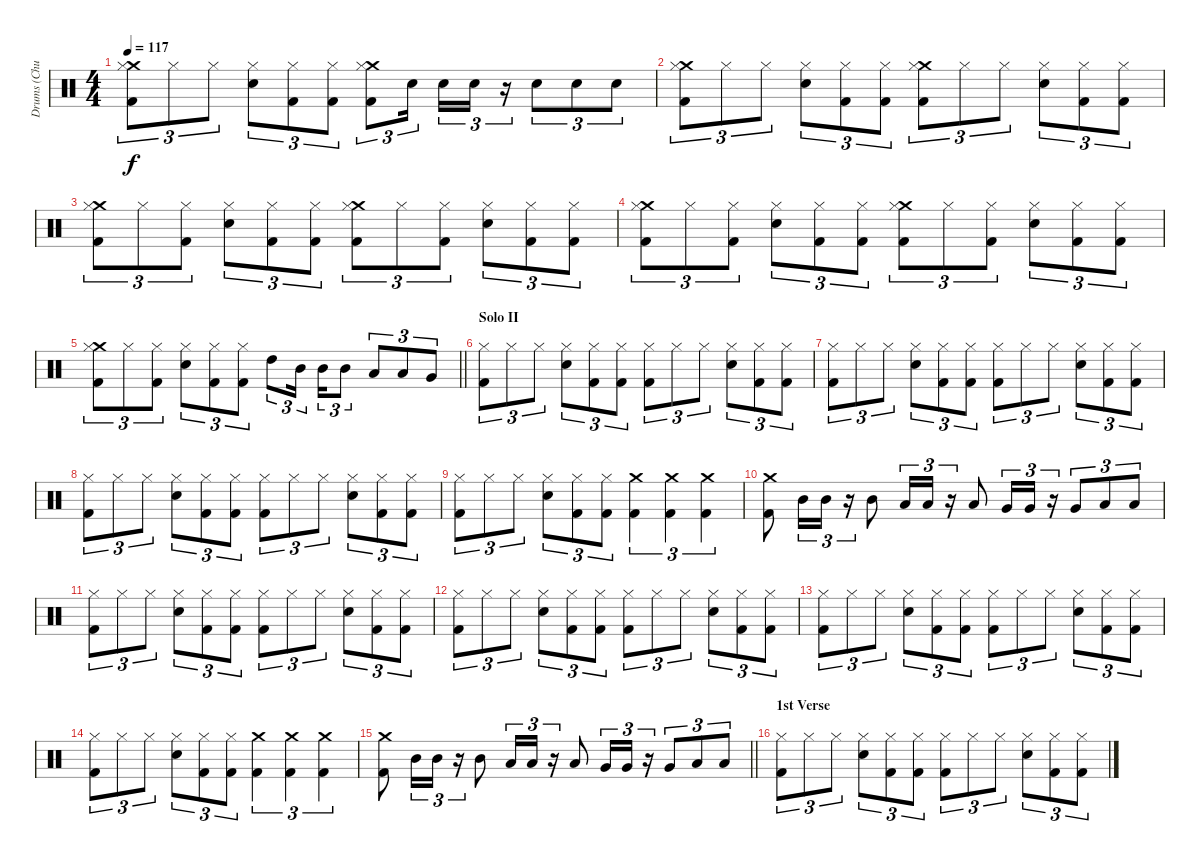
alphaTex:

\track ("Drums (Chuck Behler)" "Drums (Chu") {instrument percussion}
\staff {score}
\articulation defaults
\ts (4 4)
\tempo 117
\clef neutral
\ks c
("Crash medium (hit)" "Hi-Hat (closed)" "Kick (hit) 2").8{tu (3 2) dy f} "Hi-Hat (closed)".8{tu (3 2)} "Hi-Hat (closed)".8{tu (3 2)} ("Hi-Hat (closed)" "Snare (hit) 2").8{tu (3 2)} ("Hi-Hat (closed)" "Kick (hit) 2").8{tu (3 2)} ("Hi-Hat (closed)" "Kick (hit) 2").8{tu (3 2)} ("Crash medium (hit)" "Hi-Hat (closed)" "Kick (hit) 2").8{tu (3 2)} "Snare (hit) 2".16{tu (3 2) beam splitsecondary} "Snare (hit) 2".16{tu (3 2)} "Snare (hit) 2".16{tu (3 2)} r.16{tu (3 2)} "Snare (hit) 2".8{tu (3 2)} "Snare (hit) 2".8{tu (3 2)} "Snare (hit) 2".8{tu (3 2)} |
("Crash medium (hit)" "Hi-Hat (closed)" "Kick (hit) 2").8{tu (3 2)} "Hi-Hat (closed)".8{tu (3 2)} "Hi-Hat (closed)".8{tu (3 2)} ("Hi-Hat (closed)" "Snare (hit) 2").8{tu (3 2)} ("Hi-Hat (closed)" "Kick (hit) 2").8{tu (3 2)} ("Hi-Hat (closed)" "Kick (hit) 2").8{tu (3 2)} ("Crash medium (hit)" "Hi-Hat (closed)" "Kick (hit) 2").8{tu (3 2)} "Hi-Hat (closed)".8{tu (3 2)} "Hi-Hat (closed)".8{tu (3 2)} ("Hi-Hat (closed)" "Snare (hit) 2").8{tu (3 2)} ("Hi-Hat (closed)" "Kick (hit) 2").8{tu (3 2)} ("Hi-Hat (closed)" "Kick (hit) 2").8{tu (3 2)} |
("Crash medium (hit)" "Hi-Hat (closed)" "Kick (hit) 2").8{tu (3 2)} "Hi-Hat (closed)".8{tu (3 2)} ("Hi-Hat (closed)" "Kick (hit) 2").8{tu (3 2)} ("Hi-Hat (closed)" "Snare (hit) 2").8{tu (3 2)} ("Hi-Hat (closed)" "Kick (hit) 2").8{tu (3 2)} ("Hi-Hat (closed)" "Kick (hit) 2").8{tu (3 2)} ("Crash medium (hit)" "Hi-Hat (closed)" "Kick (hit) 2").8{tu (3 2)} "Hi-Hat (closed)".8{tu (3 2)} ("Hi-Hat (closed)" "Kick (hit) 2").8{tu (3 2)} ("Hi-Hat (closed)" "Snare (hit) 2").8{tu (3 2)} ("Hi-Hat (closed)" "Kick (hit) 2").8{tu (3 2)} ("Hi-Hat (closed)" "Kick (hit) 2").8{tu (3 2)} |
("Crash medium (hit)" "Hi-Hat (closed)" "Kick (hit) 2").8{tu (3 2)} "Hi-Hat (closed)".8{tu (3 2)} ("Hi-Hat (closed)" "Kick (hit) 2").8{tu (3 2)} ("Hi-Hat (closed)" "Snare (hit) 2").8{tu (3 2)} ("Hi-Hat (closed)" "Kick (hit) 2").8{tu (3 2)} ("Hi-Hat (closed)" "Kick (hit) 2").8{tu (3 2)} ("Crash medium (hit)" "Hi-Hat (closed)" "Kick (hit) 2").8{tu (3 2)} "Hi-Hat (closed)".8{tu (3 2)} ("Hi-Hat (closed)" "Kick (hit) 2").8{tu (3 2)} ("Hi-Hat (closed)" "Snare (hit) 2").8{tu (3 2)} ("Hi-Hat (closed)" "Kick (hit) 2").8{tu (3 2)} ("Hi-Hat (closed)" "Kick (hit) 2").8{tu (3 2)} |
\barLineRight lightlight
("Crash medium (hit)" "Hi-Hat (closed)" "Kick (hit) 2").8{tu (3 2)} "Hi-Hat (closed)".8{tu (3 2)} ("Hi-Hat (closed)" "Kick (hit) 2").8{tu (3 2)} ("Hi-Hat (closed)" "Snare (hit) 2").8{tu (3 2)} ("Hi-Hat (closed)" "Kick (hit) 2").8{tu (3 2)} ("Hi-Hat (closed)" "Kick (hit) 2").8{tu (3 2)} "High Tom (hit)".8{tu (3 2)} "Mid Tom (hit)".16{tu (3 2) beam splitsecondary} "Mid Tom (hit)".16{tu (3 2)} "Mid Tom (hit)".8{tu (3 2)} "Low Tom (hit)".8{tu (3 2)} "Low Tom (hit)".8{tu (3 2)} "Very Low Tom (hit)".8{tu (3 2)} |
\section ("" "Solo II")
("Hi-Hat (closed)" "Kick (hit) 2").8{tu (3 2)} "Hi-Hat (closed)".8{tu (3 2)} "Hi-Hat (closed)".8{tu (3 2)} ("Hi-Hat (closed)" "Snare (hit) 2").8{tu (3 2)} ("Hi-Hat (closed)" "Kick (hit) 2").8{tu (3 2)} ("Hi-Hat (closed)" "Kick (hit) 2").8{tu (3 2)} ("Hi-Hat (closed)" "Kick (hit) 2").8{tu (3 2)} "Hi-Hat (closed)".8{tu (3 2)} "Hi-Hat (closed)".8{tu (3 2)} ("Hi-Hat (closed)" "Snare (hit) 2").8{tu (3 2)} ("Hi-Hat (closed)" "Kick (hit) 2").8{tu (3 2)} ("Hi-Hat (closed)" "Kick (hit) 2").8{tu (3 2)} |
("Hi-Hat (closed)" "Kick (hit) 2").8{tu (3 2)} "Hi-Hat (closed)".8{tu (3 2)} "Hi-Hat (closed)".8{tu (3 2)} ("Hi-Hat (closed)" "Snare (hit) 2").8{tu (3 2)} ("Hi-Hat (closed)" "Kick (hit) 2").8{tu (3 2)} ("Hi-Hat (closed)" "Kick (hit) 2").8{tu (3 2)} ("Hi-Hat (closed)" "Kick (hit) 2").8{tu (3 2)} "Hi-Hat (closed)".8{tu (3 2)} "Hi-Hat (closed)".8{tu (3 2)} ("Hi-Hat (closed)" "Snare (hit) 2").8{tu (3 2)} ("Hi-Hat (closed)" "Kick (hit) 2").8{tu (3 2)} ("Hi-Hat (closed)" "Kick (hit) 2").8{tu (3 2)} |
("Hi-Hat (closed)" "Kick (hit) 2").8{tu (3 2)} "Hi-Hat (closed)".8{tu (3 2)} "Hi-Hat (closed)".8{tu (3 2)} ("Hi-Hat (closed)" "Snare (hit) 2").8{tu (3 2)} ("Hi-Hat (closed)" "Kick (hit) 2").8{tu (3 2)} ("Hi-Hat (closed)" "Kick (hit) 2").8{tu (3 2)} ("Hi-Hat (closed)" "Kick (hit) 2").8{tu (3 2)} "Hi-Hat (closed)".8{tu (3 2)} "Hi-Hat (closed)".8{tu (3 2)} ("Hi-Hat (closed)" "Snare (hit) 2").8{tu (3 2)} ("Hi-Hat (closed)" "Kick (hit) 2").8{tu (3 2)} ("Hi-Hat (closed)" "Kick (hit) 2").8{tu (3 2)} |
("Hi-Hat (closed)" "Kick (hit) 2").8{tu (3 2)} "Hi-Hat (closed)".8{tu (3 2)} "Hi-Hat (closed)".8{tu (3 2)} ("Hi-Hat (closed)" "Snare (hit) 2").8{tu (3 2)} ("Hi-Hat (closed)" "Kick (hit) 2").8{tu (3 2)} ("Hi-Hat (closed)" "Kick (hit) 2").8{tu (3 2)} ("Crash medium (hit)" "Kick (hit) 2").4{tu (3 2)} ("Crash medium (hit)" "Kick (hit) 2").4{tu (3 2)} ("Crash medium (hit)" "Kick (hit) 2").4{tu (3 2)} |
("Crash medium (hit)" "Kick (hit) 2").8 "Mid Tom (hit)".16{tu (3 2)} "Mid Tom (hit)".16{tu (3 2)} r.16{tu (3 2)} "Mid Tom (hit)".8 "Low Tom (hit)".16{tu (3 2)} "Low Tom (hit)".16{tu (3 2)} r.16{tu (3 2)} "Low Tom (hit)".8 "Very Low Tom (hit)".16{tu (3 2)} "Very Low Tom (hit)".16{tu (3 2)} r.16{tu (3 2)} "Very Low Tom (hit)".8{tu (3 2)} "Low Floor Tom (hit)".8{tu (3 2)} "Low Floor Tom (hit)".8{tu (3 2)} |
("Hi-Hat (closed)" "Kick (hit) 2").8{tu (3 2)} "Hi-Hat (closed)".8{tu (3 2)} "Hi-Hat (closed)".8{tu (3 2)} ("Hi-Hat (closed)" "Snare (hit) 2").8{tu (3 2)} ("Hi-Hat (closed)" "Kick (hit) 2").8{tu (3 2)} ("Hi-Hat (closed)" "Kick (hit) 2").8{tu (3 2)} ("Hi-Hat (closed)" "Kick (hit) 2").8{tu (3 2)} "Hi-Hat (closed)".8{tu (3 2)} "Hi-Hat (closed)".8{tu (3 2)} ("Hi-Hat (closed)" "Snare (hit) 2").8{tu (3 2)} ("Hi-Hat (closed)" "Kick (hit) 2").8{tu (3 2)} ("Hi-Hat (closed)" "Kick (hit) 2").8{tu (3 2)} |
("Hi-Hat (closed)" "Kick (hit) 2").8{tu (3 2)} "Hi-Hat (closed)".8{tu (3 2)} "Hi-Hat (closed)".8{tu (3 2)} ("Hi-Hat (closed)" "Snare (hit) 2").8{tu (3 2)} ("Hi-Hat (closed)" "Kick (hit) 2").8{tu (3 2)} ("Hi-Hat (closed)" "Kick (hit) 2").8{tu (3 2)} ("Hi-Hat (closed)" "Kick (hit) 2").8{tu (3 2)} "Hi-Hat (closed)".8{tu (3 2)} "Hi-Hat (closed)".8{tu (3 2)} ("Hi-Hat (closed)" "Snare (hit) 2").8{tu (3 2)} ("Hi-Hat (closed)" "Kick (hit) 2").8{tu (3 2)} ("Hi-Hat (closed)" "Kick (hit) 2").8{tu (3 2)} |
("Hi-Hat (closed)" "Kick (hit) 2").8{tu (3 2)} "Hi-Hat (closed)".8{tu (3 2)} "Hi-Hat (closed)".8{tu (3 2)} ("Hi-Hat (closed)" "Snare (hit) 2").8{tu (3 2)} ("Hi-Hat (closed)" "Kick (hit) 2").8{tu (3 2)} ("Hi-Hat (closed)" "Kick (hit) 2").8{tu (3 2)} ("Hi-Hat (closed)" "Kick (hit) 2").8{tu (3 2)} "Hi-Hat (closed)".8{tu (3 2)} "Hi-Hat (closed)".8{tu (3 2)} ("Hi-Hat (closed)" "Snare (hit) 2").8{tu (3 2)} ("Hi-Hat (closed)" "Kick (hit) 2").8{tu (3 2)} ("Hi-Hat (closed)" "Kick (hit) 2").8{tu (3 2)} |
("Hi-Hat (closed)" "Kick (hit) 2").8{tu (3 2)} "Hi-Hat (closed)".8{tu (3 2)} "Hi-Hat (closed)".8{tu (3 2)} ("Hi-Hat (closed)" "Snare (hit) 2").8{tu (3 2)} ("Hi-Hat (closed)" "Kick (hit) 2").8{tu (3 2)} ("Hi-Hat (closed)" "Kick (hit) 2").8{tu (3 2)} ("Crash medium (hit)" "Kick (hit) 2").4{tu (3 2)} ("Crash medium (hit)" "Kick (hit) 2").4{tu (3 2)} ("Crash medium (hit)" "Kick (hit) 2").4{tu (3 2)} |
\barLineRight lightlight
("Crash medium (hit)" "Kick (hit) 2").8 "Mid Tom (hit)".16{tu (3 2)} "Mid Tom (hit)".16{tu (3 2)} r.16{tu (3 2)} "Mid Tom (hit)".8 "Low Tom (hit)".16{tu (3 2)} "Low Tom (hit)".16{tu (3 2)} r.16{tu (3 2)} "Low Tom (hit)".8 "Very Low Tom (hit)".16{tu (3 2)} "Very Low Tom (hit)".16{tu (3 2)} r.16{tu (3 2)} "Very Low Tom (hit)".8{tu (3 2)} "Low Floor Tom (hit)".8{tu (3 2)} "Low Floor Tom (hit)".8{tu (3 2)} |
\section ("" "1st Verse")
("Hi-Hat (closed)" "Kick (hit) 2").8{tu (3 2)} "Hi-Hat (closed)".8{tu (3 2)} "Hi-Hat (closed)".8{tu (3 2)} ("Hi-Hat (closed)" "Snare (hit) 2").8{tu (3 2)} ("Hi-Hat (closed)" "Kick (hit) 2").8{tu (3 2)} ("Hi-Hat (closed)" "Kick (hit) 2").8{tu (3 2)} ("Hi-Hat (closed)" "Kick (hit) 2").8{tu (3 2)} "Hi-Hat (closed)".8{tu (3 2)} "Hi-Hat (closed)".8{tu (3 2)} ("Hi-Hat (closed)" "Snare (hit) 2").8{tu (3 2)} ("Hi-Hat (closed)" "Kick (hit) 2").8{tu (3 2)} ("Hi-Hat (closed)" "Kick (hit) 2").8{tu (3 2)}
